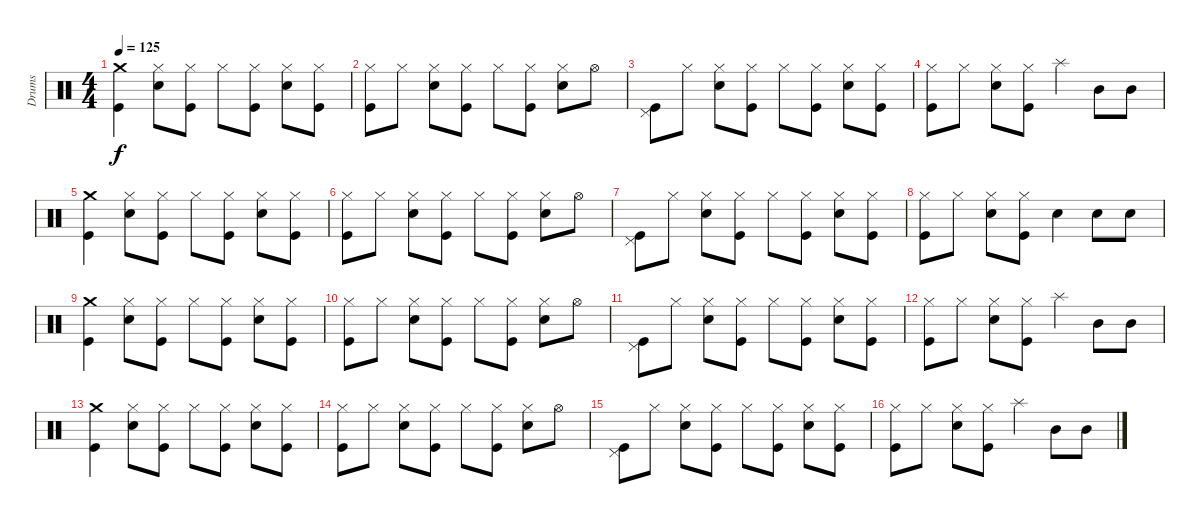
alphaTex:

\track ("Drums" "Drums") {instrument percussion}
\staff {score}
\articulation defaults
\ts (4 4)
\tempo 125
\clef neutral
\ks c
("Crash medium (hit)" "Kick (hit)").4{dy f} ("Hi-Hat (closed)" "Snare (hit) 2").8 ("Hi-Hat (closed)" "Kick (hit)").8 "Hi-Hat (closed)".8 ("Hi-Hat (closed)" "Kick (hit)").8 ("Hi-Hat (closed)" "Snare (hit) 2").8 ("Hi-Hat (closed)" "Kick (hit)").8 |
("Hi-Hat (closed)" "Kick (hit)").8 "Hi-Hat (closed)".8 ("Hi-Hat (closed)" "Snare (hit) 2").8 ("Hi-Hat (closed)" "Kick (hit)").8 "Hi-Hat (closed)".8 ("Hi-Hat (closed)" "Kick (hit)").8 ("Hi-Hat (closed)" "Snare (hit) 2").8 "Hi-Hat (open)".8 |
("Pedal Hi-Hat (hit)" "Kick (hit)").8 "Hi-Hat (closed)".8 ("Hi-Hat (closed)" "Snare (hit) 2").8 ("Hi-Hat (closed)" "Kick (hit)").8 "Hi-Hat (closed)".8 ("Hi-Hat (closed)" "Kick (hit)").8 ("Hi-Hat (closed)" "Snare (hit) 2").8 ("Hi-Hat (closed)" "Kick (hit)").8 |
("Hi-Hat (closed)" "Kick (hit)").8 "Hi-Hat (closed)".8 ("Hi-Hat (closed)" "Snare (hit) 2").8 ("Hi-Hat (closed)" "Kick (hit)").8 "Splash (hit)".4 "Mid Tom (hit)".8 "Mid Tom (hit)".8 |
("Crash medium (hit)" "Kick (hit)").4 ("Hi-Hat (closed)" "Snare (hit) 2").8 ("Hi-Hat (closed)" "Kick (hit)").8 "Hi-Hat (closed)".8 ("Hi-Hat (closed)" "Kick (hit)").8 ("Hi-Hat (closed)" "Snare (hit) 2").8 ("Hi-Hat (closed)" "Kick (hit)").8 |
("Hi-Hat (closed)" "Kick (hit)").8 "Hi-Hat (closed)".8 ("Hi-Hat (closed)" "Snare (hit) 2").8 ("Hi-Hat (closed)" "Kick (hit)").8 "Hi-Hat (closed)".8 ("Hi-Hat (closed)" "Kick (hit)").8 ("Hi-Hat (closed)" "Snare (hit) 2").8 "Hi-Hat (open)".8 |
("Pedal Hi-Hat (hit)" "Kick (hit)").8 "Hi-Hat (closed)".8 ("Hi-Hat (closed)" "Snare (hit) 2").8 ("Hi-Hat (closed)" "Kick (hit)").8 "Hi-Hat (closed)".8 ("Hi-Hat (closed)" "Kick (hit)").8 ("Hi-Hat (closed)" "Snare (hit) 2").8 ("Hi-Hat (closed)" "Kick (hit)").8 |
("Hi-Hat (closed)" "Kick (hit)").8 "Hi-Hat (closed)".8 ("Hi-Hat (closed)" "Snare (hit) 2").8 ("Hi-Hat (closed)" "Kick (hit)").8 "Snare (hit) 2".4 "Snare (hit) 2".8 "Snare (hit) 2".8 |
("Crash medium (hit)" "Kick (hit)").4 ("Hi-Hat (closed)" "Snare (hit) 2").8 ("Hi-Hat (closed)" "Kick (hit)").8 "Hi-Hat (closed)".8 ("Hi-Hat (closed)" "Kick (hit)").8 ("Hi-Hat (closed)" "Snare (hit) 2").8 ("Hi-Hat (closed)" "Kick (hit)").8 |
("Hi-Hat (closed)" "Kick (hit)").8 "Hi-Hat (closed)".8 ("Hi-Hat (closed)" "Snare (hit) 2").8 ("Hi-Hat (closed)" "Kick (hit)").8 "Hi-Hat (closed)".8 ("Hi-Hat (closed)" "Kick (hit)").8 ("Hi-Hat (closed)" "Snare (hit) 2").8 "Hi-Hat (open)".8 |
("Pedal Hi-Hat (hit)" "Kick (hit)").8 "Hi-Hat (closed)".8 ("Hi-Hat (closed)" "Snare (hit) 2").8 ("Hi-Hat (closed)" "Kick (hit)").8 "Hi-Hat (closed)".8 ("Hi-Hat (closed)" "Kick (hit)").8 ("Hi-Hat (closed)" "Snare (hit) 2").8 ("Hi-Hat (closed)" "Kick (hit)").8 |
("Hi-Hat (closed)" "Kick (hit)").8 "Hi-Hat (closed)".8 ("Hi-Hat (closed)" "Snare (hit) 2").8 ("Hi-Hat (closed)" "Kick (hit)").8 "Splash (hit)".4 "Mid Tom (hit)".8 "Mid Tom (hit)".8 |
("Crash medium (hit)" "Kick (hit)").4 ("Hi-Hat (closed)" "Snare (hit) 2").8 ("Hi-Hat (closed)" "Kick (hit)").8 "Hi-Hat (closed)".8 ("Hi-Hat (closed)" "Kick (hit)").8 ("Hi-Hat (closed)" "Snare (hit) 2").8 ("Hi-Hat (closed)" "Kick (hit)").8 |
("Hi-Hat (closed)" "Kick (hit)").8 "Hi-Hat (closed)".8 ("Hi-Hat (closed)" "Snare (hit) 2").8 ("Hi-Hat (closed)" "Kick (hit)").8 "Hi-Hat (closed)".8 ("Hi-Hat (closed)" "Kick (hit)").8 ("Hi-Hat (closed)" "Snare (hit) 2").8 "Hi-Hat (open)".8 |
("Pedal Hi-Hat (hit)" "Kick (hit)").8 "Hi-Hat (closed)".8 ("Hi-Hat (closed)" "Snare (hit) 2").8 ("Hi-Hat (closed)" "Kick (hit)").8 "Hi-Hat (closed)".8 ("Hi-Hat (closed)" "Kick (hit)").8 ("Hi-Hat (closed)" "Snare (hit) 2").8 ("Hi-Hat (closed)" "Kick (hit)").8 |
("Hi-Hat (closed)" "Kick (hit)").8 "Hi-Hat (closed)".8 ("Hi-Hat (closed)" "Snare (hit) 2").8 ("Hi-Hat (closed)" "Kick (hit)").8 "Splash (hit)".4 "Mid Tom (hit)".8 "Mid Tom (hit)".8
